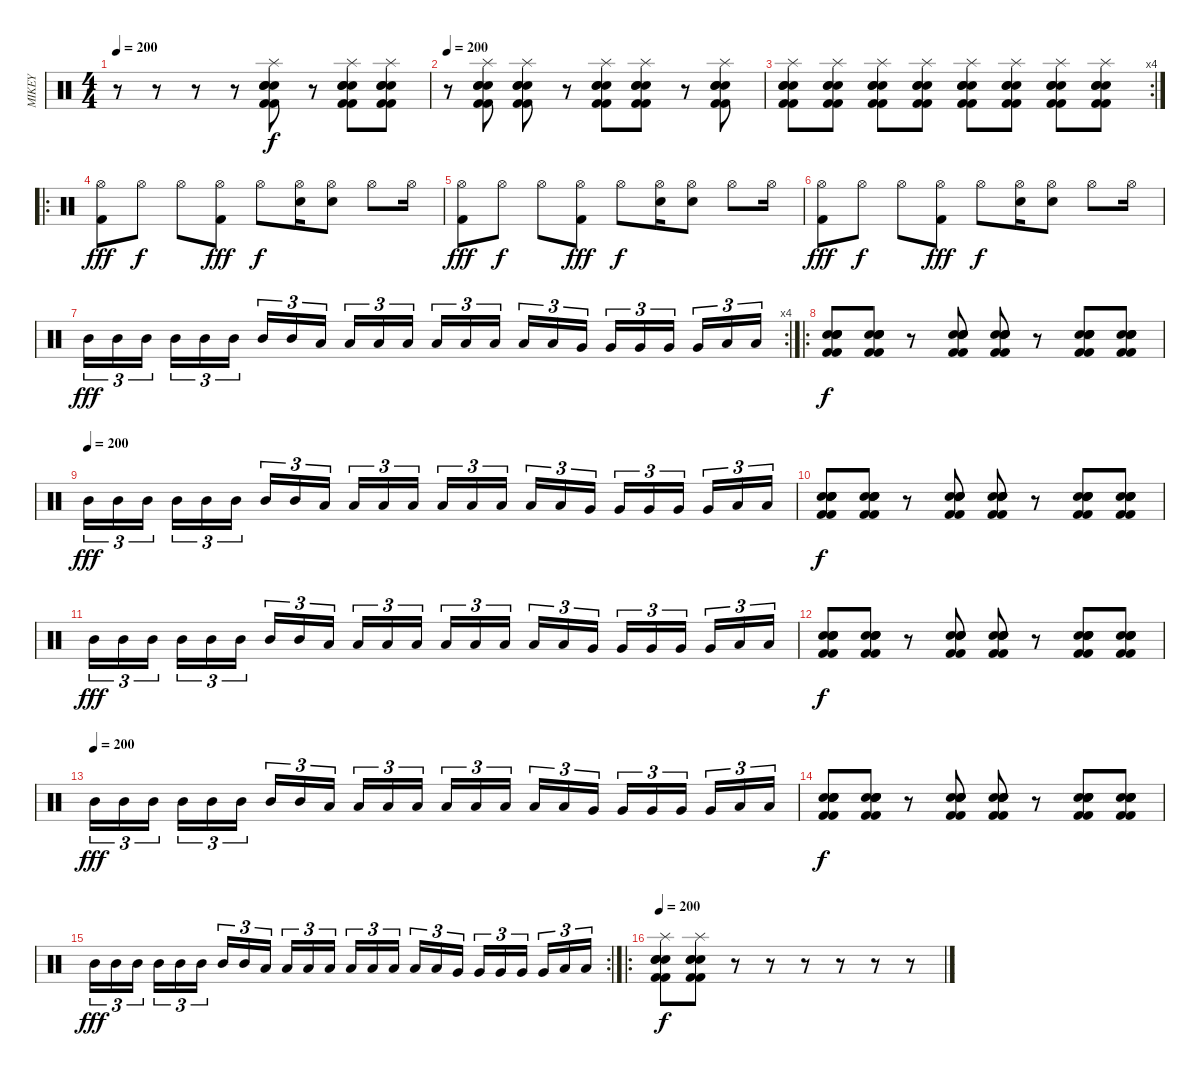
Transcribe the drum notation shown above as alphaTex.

\track ("MIKEY" "MIKEY") {instrument percussion}
\staff {score}
\articulation defaults
\ts (4 4)
\tempo 200
\clef neutral
\ks c
r.8{dy f} r.8 r.8 r.8 ("Splash (hit)" "Snare (hit) 2" "Electric Snare (hit)" "Kick (hit) 2" "Snare (hit) 2" "Kick (hit) 2").8 r.8 ("Splash (hit)" "Snare (hit) 2" "Electric Snare (hit)" "Kick (hit) 2" "Snare (hit) 2" "Kick (hit) 2").8 ("Splash (hit)" "Snare (hit) 2" "Electric Snare (hit)" "Kick (hit) 2" "Snare (hit) 2" "Kick (hit) 2").8 |
\tempo 200
r.8 ("Splash (hit)" "Snare (hit) 2" "Electric Snare (hit)" "Kick (hit) 2" "Snare (hit) 2" "Kick (hit) 2").8 ("Splash (hit)" "Snare (hit) 2" "Electric Snare (hit)" "Kick (hit) 2" "Snare (hit) 2" "Kick (hit) 2").8 r.8 ("Splash (hit)" "Snare (hit) 2" "Electric Snare (hit)" "Kick (hit) 2" "Snare (hit) 2" "Kick (hit) 2").8 ("Splash (hit)" "Snare (hit) 2" "Electric Snare (hit)" "Kick (hit) 2" "Snare (hit) 2" "Kick (hit) 2").8 r.8 ("Splash (hit)" "Snare (hit) 2" "Electric Snare (hit)" "Kick (hit) 2" "Snare (hit) 2" "Kick (hit) 2").8 |
\rc 4
("Splash (hit)" "Snare (hit) 2" "Electric Snare (hit)" "Kick (hit) 2" "Snare (hit) 2" "Kick (hit) 2").8 ("Splash (hit)" "Snare (hit) 2" "Electric Snare (hit)" "Kick (hit) 2" "Snare (hit) 2" "Kick (hit) 2").8 ("Splash (hit)" "Snare (hit) 2" "Electric Snare (hit)" "Kick (hit) 2" "Snare (hit) 2" "Kick (hit) 2").8 ("Splash (hit)" "Snare (hit) 2" "Electric Snare (hit)" "Kick (hit) 2" "Snare (hit) 2" "Kick (hit) 2").8 ("Splash (hit)" "Snare (hit) 2" "Electric Snare (hit)" "Kick (hit) 2" "Snare (hit) 2" "Kick (hit) 2").8 ("Splash (hit)" "Snare (hit) 2" "Electric Snare (hit)" "Kick (hit) 2" "Snare (hit) 2" "Kick (hit) 2").8 ("Splash (hit)" "Snare (hit) 2" "Electric Snare (hit)" "Kick (hit) 2" "Snare (hit) 2" "Kick (hit) 2").8 ("Splash (hit)" "Snare (hit) 2" "Electric Snare (hit)" "Kick (hit) 2" "Snare (hit) 2" "Kick (hit) 2").8 |
\ro
("Kick (hit) 2" "Hi-Hat (open)").8{dy fff} "Hi-Hat (open)".8{dy f} "Hi-Hat (open)".8 ("Kick (hit) 2" "Hi-Hat (open)").8{dy fff} "Hi-Hat (open)".8{dy f} ("Electric Snare (hit)" "Hi-Hat (open)").16 ("Electric Snare (hit)" "Hi-Hat (open)").8 "Hi-Hat (open)".8 "Hi-Hat (open)".16 |
("Kick (hit) 2" "Hi-Hat (open)").8{dy fff} "Hi-Hat (open)".8{dy f} "Hi-Hat (open)".8 ("Kick (hit) 2" "Hi-Hat (open)").8{dy fff} "Hi-Hat (open)".8{dy f} ("Electric Snare (hit)" "Hi-Hat (open)").16 ("Electric Snare (hit)" "Hi-Hat (open)").8 "Hi-Hat (open)".8 "Hi-Hat (open)".16 |
("Kick (hit) 2" "Hi-Hat (open)").8{dy fff} "Hi-Hat (open)".8{dy f} "Hi-Hat (open)".8 ("Kick (hit) 2" "Hi-Hat (open)").8{dy fff} "Hi-Hat (open)".8{dy f} ("Electric Snare (hit)" "Hi-Hat (open)").16 ("Electric Snare (hit)" "Hi-Hat (open)").8 "Hi-Hat (open)".8 "Hi-Hat (open)".16 |
\rc 4 "Mid Tom (hit)".16{tu (3 2) dy fff} "Mid Tom (hit)".16{tu (3 2)} "Mid Tom (hit)".16{tu (3 2)} "Mid Tom (hit)".16{tu (3 2)} "Mid Tom (hit)".16{tu (3 2)} "Mid Tom (hit)".16{tu (3 2)} "Mid Tom (hit)".16{tu (3 2)} "Mid Tom (hit)".16{tu (3 2)} "Low Tom (hit)".16{tu (3 2)} "Low Tom (hit)".16{tu (3 2)} "Low Tom (hit)".16{tu (3 2)} "Low Tom (hit)".16{tu (3 2)} "Low Tom (hit)".16{tu (3 2)} "Low Tom (hit)".16{tu (3 2)} "Low Tom (hit)".16{tu (3 2)} "Low Tom (hit)".16{tu (3 2)} "Low Tom (hit)".16{tu (3 2)} "Very Low Tom (hit)".16{tu (3 2)} "Very Low Tom (hit)".16{tu (3 2)} "Very Low Tom (hit)".16{tu (3 2)} "Very Low Tom (hit)".16{tu (3 2)} "Very Low Tom (hit)".16{tu (3 2)} "Low Floor Tom (hit)".16{tu (3 2)} "Low Floor Tom (hit)".16{tu (3 2)}
|
\ro
("Snare (hit) 2" "Snare (hit) 2" "Kick (hit) 2" "Electric Snare (hit)" "Snare (hit) 2" "Kick (hit) 2").8{dy f} ("Snare (hit) 2" "Snare (hit) 2" "Kick (hit) 2" "Electric Snare (hit)" "Snare (hit) 2" "Kick (hit) 2").8 r.8 ("Snare (hit) 2" "Snare (hit) 2" "Kick (hit) 2" "Electric Snare (hit)" "Snare (hit) 2" "Kick (hit) 2").8 ("Snare (hit) 2" "Snare (hit) 2" "Kick (hit) 2" "Electric Snare (hit)" "Snare (hit) 2" "Kick (hit) 2").8 r.8 ("Snare (hit) 2" "Snare (hit) 2" "Kick (hit) 2" "Electric Snare (hit)" "Snare (hit) 2" "Kick (hit) 2").8 ("Snare (hit) 2" "Snare (hit) 2" "Kick (hit) 2" "Electric Snare (hit)" "Snare (hit) 2" "Kick (hit) 2").8 |
\tempo (200)
"Mid Tom (hit)".16{tu (3 2) dy fff} "Mid Tom (hit)".16{tu (3 2)} "Mid Tom (hit)".16{tu (3 2)} "Mid Tom (hit)".16{tu (3 2)} "Mid Tom (hit)".16{tu (3 2)} "Mid Tom (hit)".16{tu (3 2)} "Mid Tom (hit)".16{tu (3 2)} "Mid Tom (hit)".16{tu (3 2)} "Low Tom (hit)".16{tu (3 2)} "Low Tom (hit)".16{tu (3 2)} "Low Tom (hit)".16{tu (3 2)} "Low Tom (hit)".16{tu (3 2)} "Low Tom (hit)".16{tu (3 2)} "Low Tom (hit)".16{tu (3 2)} "Low Tom (hit)".16{tu (3 2)} "Low Tom (hit)".16{tu (3 2)} "Low Tom (hit)".16{tu (3 2)} "Very Low Tom (hit)".16{tu (3 2)} "Very Low Tom (hit)".16{tu (3 2)} "Very Low Tom (hit)".16{tu (3 2)} "Very Low Tom (hit)".16{tu (3 2)} "Very Low Tom (hit)".16{tu (3 2)} "Low Floor Tom (hit)".16{tu (3 2)} "Low Floor Tom (hit)".16{tu (3 2)} |
("Snare (hit) 2" "Snare (hit) 2" "Kick (hit) 2" "Electric Snare (hit)" "Snare (hit) 2" "Kick (hit) 2").8{dy f} ("Snare (hit) 2" "Snare (hit) 2" "Kick (hit) 2" "Electric Snare (hit)" "Snare (hit) 2" "Kick (hit) 2").8 r.8 ("Snare (hit) 2" "Snare (hit) 2" "Kick (hit) 2" "Electric Snare (hit)" "Snare (hit) 2" "Kick (hit) 2").8 ("Snare (hit) 2" "Snare (hit) 2" "Kick (hit) 2" "Electric Snare (hit)" "Snare (hit) 2" "Kick (hit) 2").8 r.8 ("Snare (hit) 2" "Snare (hit) 2" "Kick (hit) 2" "Electric Snare (hit)" "Snare (hit) 2" "Kick (hit) 2").8 ("Snare (hit) 2" "Snare (hit) 2" "Kick (hit) 2" "Electric Snare (hit)" "Snare (hit) 2" "Kick (hit) 2").8 |
"Mid Tom (hit)".16{tu (3 2) dy fff} "Mid Tom (hit)".16{tu (3 2)} "Mid Tom (hit)".16{tu (3 2)} "Mid Tom (hit)".16{tu (3 2)} "Mid Tom (hit)".16{tu (3 2)} "Mid Tom (hit)".16{tu (3 2)} "Mid Tom (hit)".16{tu (3 2)} "Mid Tom (hit)".16{tu (3 2)} "Low Tom (hit)".16{tu (3 2)} "Low Tom (hit)".16{tu (3 2)} "Low Tom (hit)".16{tu (3 2)} "Low Tom (hit)".16{tu (3 2)} "Low Tom (hit)".16{tu (3 2)} "Low Tom (hit)".16{tu (3 2)} "Low Tom (hit)".16{tu (3 2)} "Low Tom (hit)".16{tu (3 2)} "Low Tom (hit)".16{tu (3 2)} "Very Low Tom (hit)".16{tu (3 2)} "Very Low Tom (hit)".16{tu (3 2)} "Very Low Tom (hit)".16{tu (3 2)} "Very Low Tom (hit)".16{tu (3 2)} "Very Low Tom (hit)".16{tu (3 2)} "Low Floor Tom (hit)".16{tu (3 2)} "Low Floor Tom (hit)".16{tu (3 2)} |
("Snare (hit) 2" "Snare (hit) 2" "Kick (hit) 2" "Electric Snare (hit)" "Snare (hit) 2" "Kick (hit) 2").8{dy f} ("Snare (hit) 2" "Snare (hit) 2" "Kick (hit) 2" "Electric Snare (hit)" "Snare (hit) 2" "Kick (hit) 2").8 r.8 ("Snare (hit) 2" "Snare (hit) 2" "Kick (hit) 2" "Electric Snare (hit)" "Snare (hit) 2" "Kick (hit) 2").8 ("Snare (hit) 2" "Snare (hit) 2" "Kick (hit) 2" "Electric Snare (hit)" "Snare (hit) 2" "Kick (hit) 2").8 r.8 ("Snare (hit) 2" "Snare (hit) 2" "Kick (hit) 2" "Electric Snare (hit)" "Snare (hit) 2" "Kick (hit) 2").8 ("Snare (hit) 2" "Snare (hit) 2" "Kick (hit) 2" "Electric Snare (hit)" "Snare (hit) 2" "Kick (hit) 2").8 |
\tempo (200)
"Mid Tom (hit)".16{tu (3 2) dy fff} "Mid Tom (hit)".16{tu (3 2)} "Mid Tom (hit)".16{tu (3 2)} "Mid Tom (hit)".16{tu (3 2)} "Mid Tom (hit)".16{tu (3 2)} "Mid Tom (hit)".16{tu (3 2)} "Mid Tom (hit)".16{tu (3 2)} "Mid Tom (hit)".16{tu (3 2)} "Low Tom (hit)".16{tu (3 2)} "Low Tom (hit)".16{tu (3 2)} "Low Tom (hit)".16{tu (3 2)} "Low Tom (hit)".16{tu (3 2)} "Low Tom (hit)".16{tu (3 2)} "Low Tom (hit)".16{tu (3 2)} "Low Tom (hit)".16{tu (3 2)} "Low Tom (hit)".16{tu (3 2)} "Low Tom (hit)".16{tu (3 2)} "Very Low Tom (hit)".16{tu (3 2)} "Very Low Tom (hit)".16{tu (3 2)} "Very Low Tom (hit)".16{tu (3 2)} "Very Low Tom (hit)".16{tu (3 2)} "Very Low Tom (hit)".16{tu (3 2)} "Low Floor Tom (hit)".16{tu (3 2)} "Low Floor Tom (hit)".16{tu (3 2)} |
("Snare (hit) 2" "Snare (hit) 2" "Kick (hit) 2" "Electric Snare (hit)" "Snare (hit) 2" "Kick (hit) 2").8{dy f} ("Snare (hit) 2" "Snare (hit) 2" "Kick (hit) 2" "Electric Snare (hit)" "Snare (hit) 2" "Kick (hit) 2").8 r.8 ("Snare (hit) 2" "Snare (hit) 2" "Kick (hit) 2" "Electric Snare (hit)" "Snare (hit) 2" "Kick (hit) 2").8 ("Snare (hit) 2" "Snare (hit) 2" "Kick (hit) 2" "Electric Snare (hit)" "Snare (hit) 2" "Kick (hit) 2").8 r.8 ("Snare (hit) 2" "Snare (hit) 2" "Kick (hit) 2" "Electric Snare (hit)" "Snare (hit) 2" "Kick (hit) 2").8 ("Snare (hit) 2" "Snare (hit) 2" "Kick (hit) 2" "Electric Snare (hit)" "Snare (hit) 2" "Kick (hit) 2").8 |
\rc 2 "Mid Tom (hit)".16{tu (3 2) dy fff} "Mid Tom (hit)".16{tu (3 2)} "Mid Tom (hit)".16{tu (3 2)} "Mid Tom (hit)".16{tu (3 2)} "Mid Tom (hit)".16{tu (3 2)} "Mid Tom (hit)".16{tu (3 2)} "Mid Tom (hit)".16{tu (3 2)} "Mid Tom (hit)".16{tu (3 2)} "Low Tom (hit)".16{tu (3 2)} "Low Tom (hit)".16{tu (3 2)} "Low Tom (hit)".16{tu (3 2)} "Low Tom (hit)".16{tu (3 2)} "Low Tom (hit)".16{tu (3 2)} "Low Tom (hit)".16{tu (3 2)} "Low Tom (hit)".16{tu (3 2)} "Low Tom (hit)".16{tu (3 2)} "Low Tom (hit)".16{tu (3 2)} "Very Low Tom (hit)".16{tu (3 2)} "Very Low Tom (hit)".16{tu (3 2)} "Very Low Tom (hit)".16{tu (3 2)} "Very Low Tom (hit)".16{tu (3 2)} "Very Low Tom (hit)".16{tu (3 2)} "Low Floor Tom (hit)".16{tu (3 2)} "Low Floor Tom (hit)".16{tu (3 2)}
|
\ro
\tempo 200
("Splash (hit)" "Snare (hit) 2" "Electric Snare (hit)" "Kick (hit) 2" "Snare (hit) 2" "Kick (hit) 2").8{dy f} ("Splash (hit)" "Snare (hit) 2" "Electric Snare (hit)" "Kick (hit) 2" "Snare (hit) 2" "Kick (hit) 2").8 r.8 r.8 r.8 r.8 r.8 r.8
